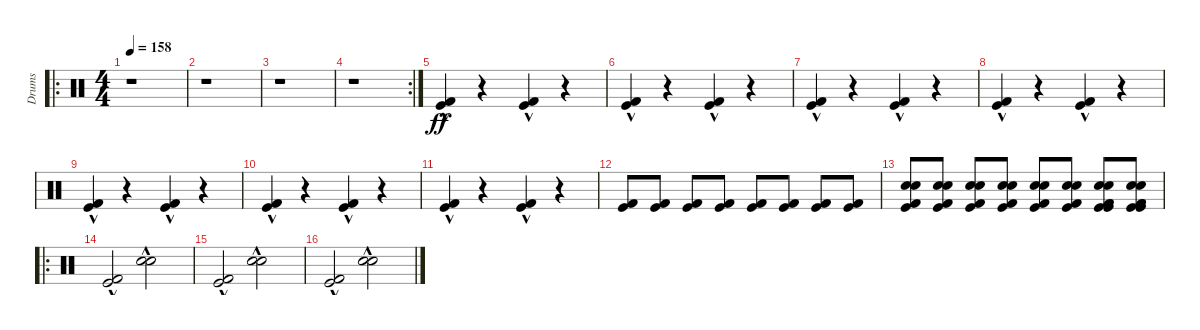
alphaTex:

\track ("Drums" "Drums") {instrument percussion}
\staff {score}
\articulation defaults
\ro
\ts (4 4)
\tempo 158
\clef neutral
\ks c
r.1{dy ff} |
r.1 |
r.1 |
\rc 2
r.1 |
("Kick (hit)"{hac} "Kick (hit) 2"{hac}).4 r.4 ("Kick (hit)"{hac} "Kick (hit) 2"{hac}).4 r.4 |
("Kick (hit)"{hac} "Kick (hit) 2"{hac}).4 r.4 ("Kick (hit)"{hac} "Kick (hit) 2"{hac}).4 r.4 |
("Kick (hit)"{hac} "Kick (hit) 2"{hac}).4 r.4 ("Kick (hit)"{hac} "Kick (hit) 2"{hac}).4 r.4 |
("Kick (hit)"{hac} "Kick (hit) 2"{hac}).4 r.4 ("Kick (hit)"{hac} "Kick (hit) 2"{hac}).4 r.4 |
("Kick (hit)"{hac} "Kick (hit) 2"{hac}).4 r.4 ("Kick (hit)"{hac} "Kick (hit) 2"{hac}).4 r.4 |
("Kick (hit)"{hac} "Kick (hit) 2"{hac}).4 r.4 ("Kick (hit)"{hac} "Kick (hit) 2"{hac}).4 r.4 |
("Kick (hit)"{hac} "Kick (hit) 2"{hac}).4 r.4 ("Kick (hit)"{hac} "Kick (hit) 2"{hac}).4 r.4 |
("Kick (hit)" "Kick (hit) 2").8 ("Kick (hit)" "Kick (hit) 2").8 ("Kick (hit)" "Kick (hit) 2").8 ("Kick (hit)" "Kick (hit) 2").8 ("Kick (hit)" "Kick (hit) 2").8 ("Kick (hit)" "Kick (hit) 2").8 ("Kick (hit)" "Kick (hit) 2").8 ("Kick (hit)" "Kick (hit) 2").8 |
("Kick (hit)" "Kick (hit) 2" "Snare (hit) 2" "Electric Snare (hit)").8 ("Kick (hit)" "Kick (hit) 2" "Snare (hit) 2" "Electric Snare (hit)").8 ("Kick (hit)" "Kick (hit) 2" "Snare (hit) 2" "Electric Snare (hit)").8 ("Kick (hit)" "Kick (hit) 2" "Snare (hit) 2" "Electric Snare (hit)").8 ("Kick (hit)" "Kick (hit) 2" "Snare (hit) 2" "Electric Snare (hit)").8 ("Kick (hit)" "Kick (hit) 2" "Snare (hit) 2" "Electric Snare (hit)").8 ("Kick (hit)" "Kick (hit) 2" "Snare (hit) 2" "Electric Snare (hit)" "Kick (hit)" "Kick (hit) 2").8 ("Kick (hit)" "Kick (hit) 2" "Snare (hit) 2" "Electric Snare (hit)" "Kick (hit)" "Kick (hit) 2").8 |
\ro
("Kick (hit)"{hac} "Kick (hit) 2"{hac}).2 ("Snare (hit) 2"{hac} "Electric Snare (hit)"{hac}).2 |
("Kick (hit)"{hac} "Kick (hit) 2"{hac}).2 ("Snare (hit) 2"{hac} "Electric Snare (hit)"{hac}).2 |
("Kick (hit)"{hac} "Kick (hit) 2"{hac}).2 ("Snare (hit) 2"{hac} "Electric Snare (hit)"{hac}).2
